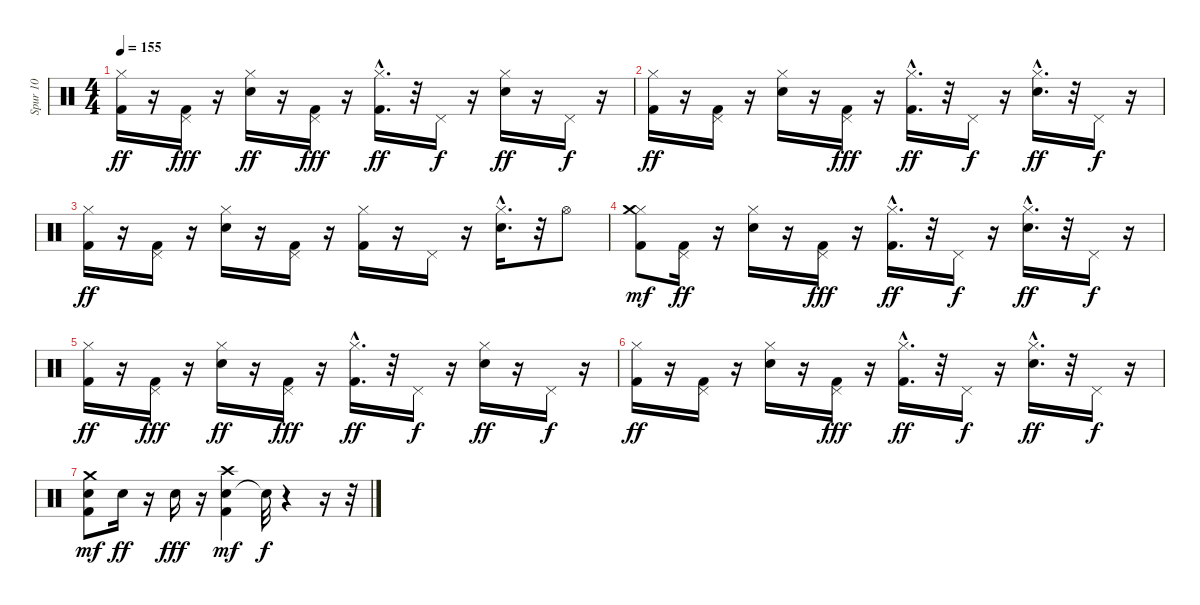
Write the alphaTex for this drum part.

\track ("Spur 10" "Spur 10") {instrument percussion}
\staff {score}
\articulation defaults
\ts (4 4)
\tempo 155
\clef neutral
\ks c
("Kick (hit) 2" "Hi-Hat (closed)").16{dy ff} r.16 ("Kick (hit) 2" "Pedal Hi-Hat (hit)").16{dy fff} r.16 ("Snare (hit) 2" "Hi-Hat (closed)").16{dy ff} r.16 ("Kick (hit) 2" "Pedal Hi-Hat (hit)").16{dy fff} r.16 ("Kick (hit) 2"{hac} "Hi-Hat (closed)").16{d dy ff} r.32 "Pedal Hi-Hat (hit)".16{dy f} r.16 ("Snare (hit) 2" "Hi-Hat (closed)").16{dy ff} r.16 "Pedal Hi-Hat (hit)".16{dy f} r.16 |
("Kick (hit) 2" "Hi-Hat (closed)").16{dy ff} r.16 ("Kick (hit) 2" "Pedal Hi-Hat (hit)").16 r.16 ("Snare (hit) 2" "Hi-Hat (closed)").16 r.16 ("Kick (hit) 2" "Pedal Hi-Hat (hit)").16{dy fff} r.16 ("Kick (hit) 2"{hac} "Hi-Hat (closed)").16{d dy ff} r.32 "Pedal Hi-Hat (hit)".16{dy f} r.16 ("Snare (hit) 2"{hac} "Hi-Hat (closed)").16{d dy ff} r.32 "Pedal Hi-Hat (hit)".16{dy f} r.16 |
("Kick (hit) 2" "Hi-Hat (closed)").16{dy ff} r.16 ("Kick (hit) 2" "Pedal Hi-Hat (hit)").16 r.16 ("Snare (hit) 2" "Hi-Hat (closed)").16 r.16 ("Kick (hit) 2" "Pedal Hi-Hat (hit)").16 r.16 ("Kick (hit) 2" "Hi-Hat (closed)").16 r.16 "Pedal Hi-Hat (hit)".16 r.16 ("Snare (hit) 2"{hac} "Hi-Hat (closed)").16{d} r.32 "Hi-Hat (open)".8 |
("Kick (hit) 2" "Hi-Hat (closed)" "Crash medium (hit)").8{dy mf} ("Kick (hit) 2" "Pedal Hi-Hat (hit)").16{dy ff} r.16 ("Snare (hit) 2" "Hi-Hat (closed)").16 r.16 ("Kick (hit) 2" "Pedal Hi-Hat (hit)").16{dy fff} r.16 ("Kick (hit) 2"{hac} "Hi-Hat (closed)").16{d dy ff} r.32 "Pedal Hi-Hat (hit)".16{dy f} r.16 ("Snare (hit) 2"{hac} "Hi-Hat (closed)").16{d dy ff} r.32 "Pedal Hi-Hat (hit)".16{dy f} r.16 |
("Kick (hit) 2" "Hi-Hat (closed)").16{dy ff} r.16 ("Kick (hit) 2" "Pedal Hi-Hat (hit)").16{dy fff} r.16 ("Snare (hit) 2" "Hi-Hat (closed)").16{dy ff} r.16 ("Kick (hit) 2" "Pedal Hi-Hat (hit)").16{dy fff} r.16 ("Kick (hit) 2"{hac} "Hi-Hat (closed)").16{d dy ff} r.32 "Pedal Hi-Hat (hit)".16{dy f} r.16 ("Snare (hit) 2" "Hi-Hat (closed)").16{dy ff} r.16 "Pedal Hi-Hat (hit)".16{dy f} r.16 |
("Kick (hit) 2" "Hi-Hat (closed)").16{dy ff} r.16 ("Kick (hit) 2" "Pedal Hi-Hat (hit)").16 r.16 ("Snare (hit) 2" "Hi-Hat (closed)").16 r.16 ("Kick (hit) 2" "Pedal Hi-Hat (hit)").16{dy fff} r.16 ("Kick (hit) 2"{hac} "Hi-Hat (closed)").16{d dy ff} r.32 "Pedal Hi-Hat (hit)".16{dy f} r.16 ("Snare (hit) 2"{hac} "Hi-Hat (closed)").16{d dy ff} r.32 "Pedal Hi-Hat (hit)".16{dy f} r.16 |
("Snare (hit) 2" "Kick (hit) 2" "Crash medium (hit)").8{dy mf} "Snare (hit) 2".16{dy ff} r.16 "Snare (hit) 2".16{dy fff} r.16 ("Snare (hit) 2" "Kick (hit) 2" "Crash high (hit)").4{dy mf} "Snare (hit)"{t}.32{dy f} r.4 r.16 r.32
